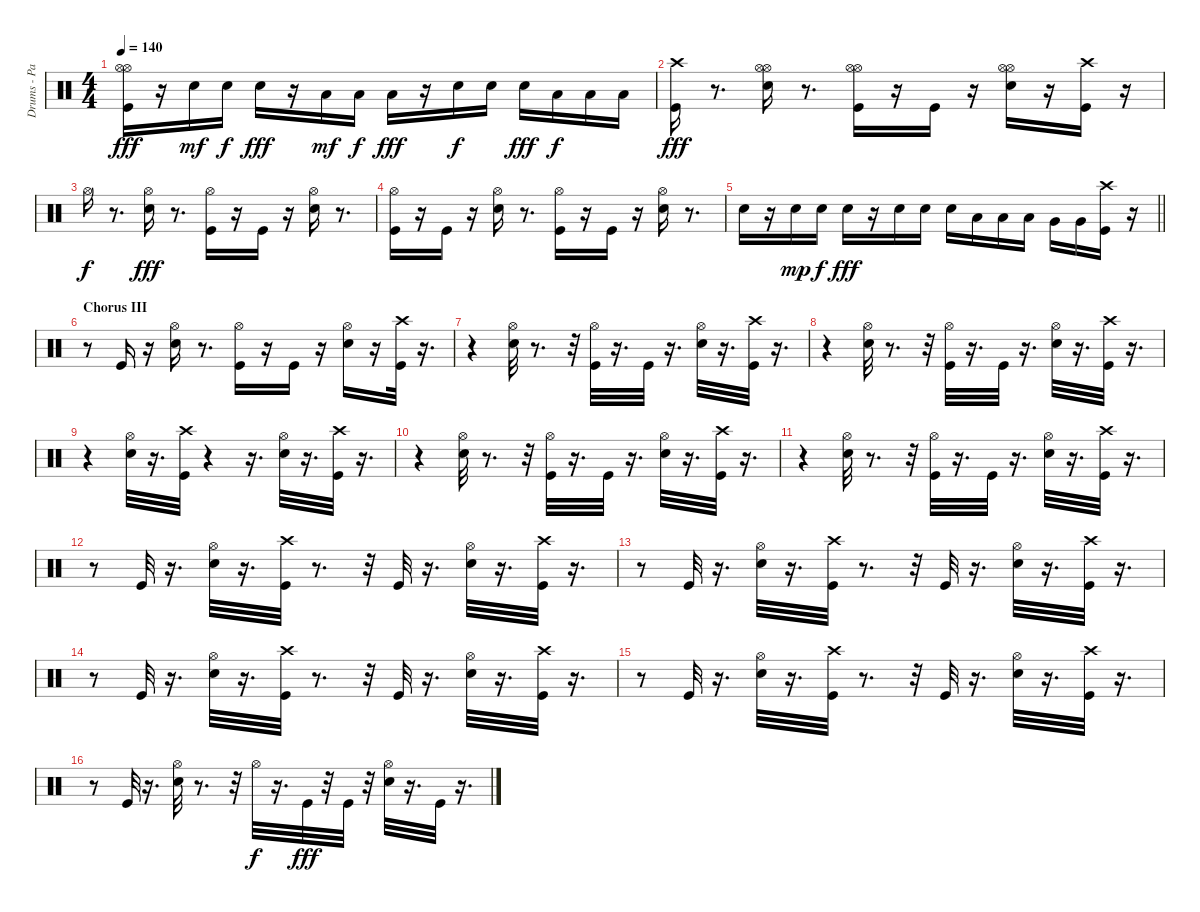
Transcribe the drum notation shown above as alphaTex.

\track ("Drums - Paice" "Drums - Pa") {instrument percussion}
\staff {score}
\articulation defaults
\ts (4 4)
\tempo 140
\clef neutral
\ks c
("Hi-Hat (open)" "Kick (hit)" "Hi-Hat (open)").16{dy fff} r.16 "Snare (hit) 2".16{dy mf} "Snare (hit) 2".16{dy f} "Snare (hit) 2".16{dy fff} r.16 "Low Tom (hit)".16{dy mf} "Low Tom (hit)".16{dy f} "Low Tom (hit)".16{dy fff} r.16 "Snare (hit) 2".16{dy f} "Snare (hit) 2".16 "Snare (hit) 2".16{dy fff} "Low Tom (hit)".16{dy f} "Low Tom (hit)".16 "Low Tom (hit)".16 |
("Crash high (hit)" "Kick (hit)").16{dy fff} r.8{d} ("Snare (hit) 2" "Hi-Hat (open)" "Hi-Hat (open)").16 r.8{d} ("Hi-Hat (open)" "Kick (hit)" "Hi-Hat (open)").16 r.16 "Kick (hit)".16 r.16 ("Hi-Hat (open)" "Hi-Hat (open)" "Snare (hit) 2").16 r.16 ("Crash high (hit)" "Kick (hit)").16 r.16 |
"Hi-Hat (open)".16{dy f} r.8{d} ("Hi-Hat (open)" "Snare (hit) 2").16{dy fff} r.8{d} ("Kick (hit)" "Hi-Hat (open)").16 r.16 "Kick (hit)".16 r.16 ("Snare (hit) 2" "Hi-Hat (open)").16 r.8{d} |
("Kick (hit)" "Hi-Hat (open)").16 r.16 "Kick (hit)".16 r.16 ("Snare (hit) 2" "Hi-Hat (open)").16 r.8{d} ("Kick (hit)" "Hi-Hat (open)").16 r.16 "Kick (hit)".16 r.16 ("Snare (hit) 2" "Hi-Hat (open)").16 r.8{d} |
\barLineRight lightlight "Snare (hit) 2".16
r.16 "Snare (hit) 2".16{dy mp} "Snare (hit) 2".16{dy f} "Snare (hit) 2".16{dy fff} r.16 "Snare (hit) 2".16 "Snare (hit) 2".16 "Snare (hit) 2".16 "Low Tom (hit)".16 "Low Tom (hit)".16 "Low Tom (hit)".16 "Very Low Tom (hit)".16 "Very Low Tom (hit)".16 ("Kick (hit)" "Crash high (hit)").16 r.16 |
\section ("" "Chorus III")
r.8 "Kick (hit)".16 r.16 ("Hi-Hat (open)" "Snare (hit) 2").16 r.8{d} ("Kick (hit)" "Hi-Hat (open)").16 r.16 "Kick (hit)".16 r.16 ("Snare (hit) 2" "Hi-Hat (open)").16 r.16 ("Crash high (hit)" "Kick (hit)").32 r.16{d} |
r.4 ("Snare (hit) 2" "Hi-Hat (open)").32 r.8{d} r.32 ("Hi-Hat (open)" "Kick (hit)").32 r.16{d} "Kick (hit)".32 r.16{d} ("Hi-Hat (open)" "Snare (hit) 2").32 r.16{d} ("Kick (hit)" "Crash high (hit)").32 r.16{d} |
r.4 ("Snare (hit) 2" "Hi-Hat (open)").32 r.8{d} r.32 ("Kick (hit)" "Hi-Hat (open)").32 r.16{d} "Kick (hit)".32 r.16{d} ("Hi-Hat (open)" "Snare (hit) 2").32 r.16{d} ("Crash high (hit)" "Kick (hit)").32 r.16{d} |
r.4 ("Hi-Hat (open)" "Snare (hit) 2").32 r.16{d} ("Kick (hit)" "Crash high (hit)").32 r.4 r.16{d} ("Snare (hit) 2" "Hi-Hat (open)").32 r.16{d} ("Kick (hit)" "Crash high (hit)").32 r.16{d} |
r.4 ("Hi-Hat (open)" "Snare (hit) 2").32 r.8{d} r.32 ("Hi-Hat (open)" "Kick (hit)").32 r.16{d} "Kick (hit)".32 r.16{d} ("Snare (hit) 2" "Hi-Hat (open)").32 r.16{d} ("Crash high (hit)" "Kick (hit)").32 r.16{d} |
r.4 ("Hi-Hat (open)" "Snare (hit) 2").32 r.8{d} r.32 ("Hi-Hat (open)" "Kick (hit)").32 r.16{d} "Kick (hit)".32 r.16{d} ("Snare (hit) 2" "Hi-Hat (open)").32 r.16{d} ("Kick (hit)" "Crash high (hit)").32 r.16{d} |
r.8 "Kick (hit)".32 r.16{d} ("Hi-Hat (open)" "Snare (hit) 2").32 r.16{d} ("Crash high (hit)" "Kick (hit)").32 r.8{d} r.32 "Kick (hit)".32 r.16{d} ("Hi-Hat (open)" "Snare (hit) 2").32 r.16{d} ("Crash high (hit)" "Kick (hit)").32 r.16{d} |
r.8 "Kick (hit)".32 r.16{d} ("Snare (hit) 2" "Hi-Hat (open)").32 r.16{d} ("Kick (hit)" "Crash high (hit)").32 r.8{d} r.32 "Kick (hit)".32 r.16{d} ("Hi-Hat (open)" "Snare (hit) 2").32 r.16{d} ("Crash high (hit)" "Kick (hit)").32 r.16{d} |
r.8 "Kick (hit)".32 r.16{d} ("Hi-Hat (open)" "Snare (hit) 2").32 r.16{d} ("Crash high (hit)" "Kick (hit)").32 r.8{d} r.32 "Kick (hit)".32 r.16{d} ("Snare (hit) 2" "Hi-Hat (open)").32 r.16{d} ("Crash high (hit)" "Kick (hit)").32 r.16{d} |
r.8 "Kick (hit)".32 r.16{d} ("Snare (hit) 2" "Hi-Hat (open)").32 r.16{d} ("Crash high (hit)" "Kick (hit)").32 r.8{d} r.32 "Kick (hit)".32 r.16{d} ("Snare (hit) 2" "Hi-Hat (open)").32 r.16{d} ("Crash high (hit)" "Kick (hit)").32 r.16{d} |
r.8 "Kick (hit)".32 r.16{d} ("Snare (hit) 2" "Hi-Hat (open)").32 r.8{d} r.32 "Hi-Hat (open)".32{dy f} r.16{d} "Kick (hit)".32{dy fff} r.32 "Kick (hit)".32 r.32 ("Snare (hit) 2" "Hi-Hat (open)").32 r.16{d} "Kick (hit)".32 r.16{d}
